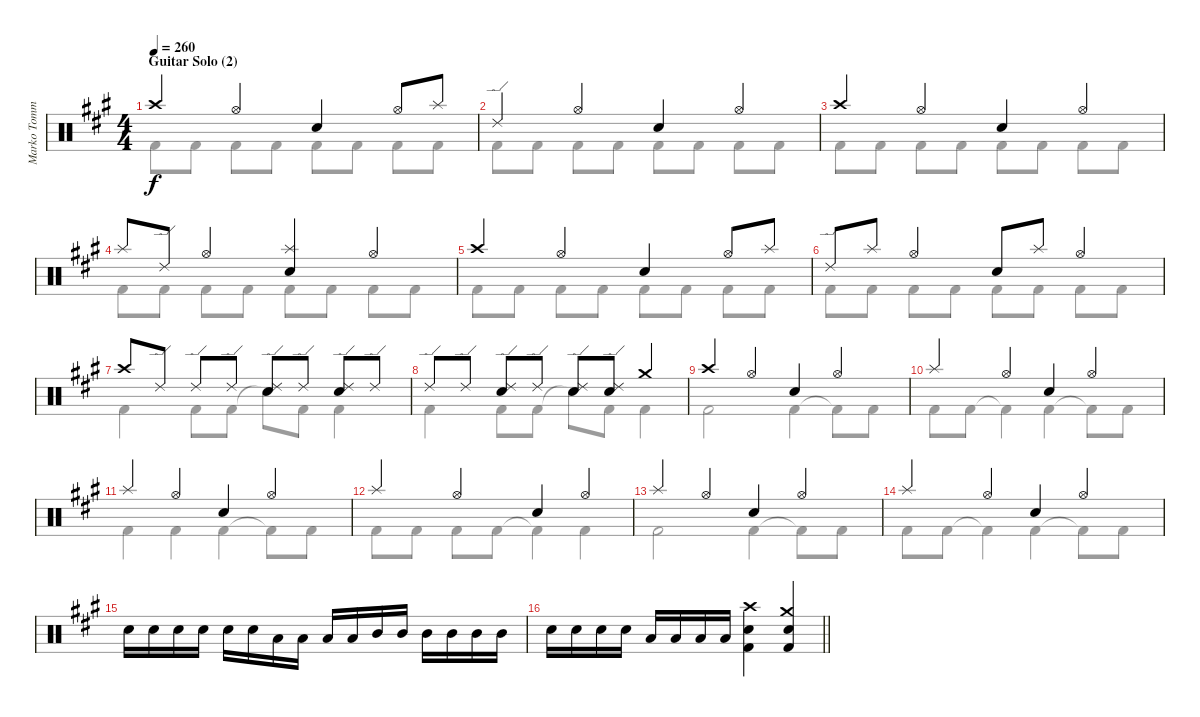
\track ("Marko Tommila (drums)" "Marko Tomm") {instrument percussion}
\staff {score}
\articulation defaults
\voice
\ts (4 4)
\section ("" "Guitar Solo (2)")
\tempo 260
\clef neutral
\ks f#minor "Crash high (hit)".4{dy f} "Hi-Hat (open)".4 "Electric Snare (hit)".4 "Hi-Hat (open)".8 "Splash (hit)".8
|
"Ride (edge) 2".4 "Hi-Hat (open)".4 "Electric Snare (hit)".4 "Hi-Hat (open)".4 |
"Crash high (hit)".4 "Hi-Hat (open)".4 "Electric Snare (hit)".4 "Hi-Hat (open)".4 |
"Splash (hit)".8 "Ride (edge) 2".8 "Hi-Hat (open)".4 ("Splash (hit)" "Electric Snare (hit)").4 "Hi-Hat (open)".4 |
"Crash high (hit)".4 "Hi-Hat (open)".4 "Electric Snare (hit)".4 "Hi-Hat (open)".8 "Splash (hit)".8 |
"Ride (edge) 2".8 "Splash (hit)".8 "Hi-Hat (open)".4 "Electric Snare (hit)".8 "Splash (hit)".8 "Hi-Hat (open)".4 |
"Crash high (hit)".8 "Ride (edge) 2".8 "Ride (edge) 2".8 "Ride (edge) 2".8 ("Ride (edge) 2" "Electric Snare (hit)").8 "Ride (edge) 2".8 ("Ride (edge) 2" "Electric Snare (hit)").8 "Ride (edge) 2".8 |
"Ride (edge) 2".8 "Ride (edge) 2".8 ("Ride (edge) 2" "Electric Snare (hit)").8 "Ride (edge) 2".8 ("Ride (edge) 2" "Electric Snare (hit)").8 ("Ride (edge) 2" "Electric Snare (hit)").8 "Crash medium (hit)".4 |
"Crash high (hit)".4 "Hi-Hat (open)".4 "Electric Snare (hit)".4 "Hi-Hat (open)".4 |
"Splash (hit)".4 "Hi-Hat (open)".4 "Electric Snare (hit)".4 "Hi-Hat (open)".4 |
"Splash (hit)".4 "Hi-Hat (open)".4 "Electric Snare (hit)".4 "Hi-Hat (open)".4 |
"Splash (hit)".4 "Hi-Hat (open)".4 "Electric Snare (hit)".4 "Hi-Hat (open)".4 |
"Splash (hit)".4 "Hi-Hat (open)".4 "Electric Snare (hit)".4 "Hi-Hat (open)".4 |
"Splash (hit)".4 "Hi-Hat (open)".4 "Electric Snare (hit)".4 "Hi-Hat (open)".4 |
"Electric Snare (hit)".16 "Electric Snare (hit)".16 "Electric Snare (hit)".16 "Electric Snare (hit)".16 "Electric Snare (hit)".16 "Electric Snare (hit)".16 "Low Tom (hit)".16 "Low Tom (hit)".16 "Low Tom (hit)".16 "Low Tom (hit)".16 "Mid Tom (hit)".16 "Mid Tom (hit)".16 "Mid Tom (hit)".16 "Mid Tom (hit)".16 "Mid Tom (hit)".16 "Mid Tom (hit)".16 |
\barLineRight lightlight "Electric Snare (hit)".16 "Electric Snare (hit)".16 "Electric Snare (hit)".16 "Electric Snare (hit)".16 "Low Tom (hit)".16 "Low Tom (hit)".16 "Low Tom (hit)".16 "Low Tom (hit)".16
("Crash high (hit)" "Electric Snare (hit)" "Kick (hit) 2").4 ("Crash medium (hit)" "Electric Snare (hit)" "Kick (hit) 2").4
\voice
\clef neutral
\ottava regular
\simile none
\ks f#minor "Kick (hit) 2".8{dy f} "Kick (hit) 2".8 "Kick (hit) 2".8 "Kick (hit) 2".8 "Kick (hit) 2".8 "Kick (hit) 2".8 "Kick (hit) 2".8 "Kick (hit) 2".8
|
"Kick (hit) 2".8 "Kick (hit) 2".8 "Kick (hit) 2".8 "Kick (hit) 2".8 "Kick (hit) 2".8 "Kick (hit) 2".8 "Kick (hit) 2".8 "Kick (hit) 2".8 |
"Kick (hit) 2".8 "Kick (hit) 2".8 "Kick (hit) 2".8 "Kick (hit) 2".8 "Kick (hit) 2".8 "Kick (hit) 2".8 "Kick (hit) 2".8 "Kick (hit) 2".8 |
"Kick (hit) 2".8 "Kick (hit) 2".8 "Kick (hit) 2".8 "Kick (hit) 2".8 "Kick (hit) 2".8 "Kick (hit) 2".8 "Kick (hit) 2".8 "Kick (hit) 2".8 |
"Kick (hit) 2".8 "Kick (hit) 2".8 "Kick (hit) 2".8 "Kick (hit) 2".8 "Kick (hit) 2".8 "Kick (hit) 2".8 "Kick (hit) 2".8 "Kick (hit) 2".8 |
"Kick (hit) 2".8 "Kick (hit) 2".8 "Kick (hit) 2".8 "Kick (hit) 2".8 "Kick (hit) 2".8 "Kick (hit) 2".8 "Kick (hit) 2".8 "Kick (hit) 2".8 |
"Kick (hit) 2".4 "Kick (hit) 2".8 "Kick (hit) 2".8 "Snare (hit)"{t}.8 "Kick (hit) 2".8 "Kick (hit) 2".4 |
"Kick (hit) 2".4 "Kick (hit) 2".8 "Kick (hit) 2".8 "Snare (hit)"{t}.8 "Kick (hit) 2".8 "Kick (hit) 2".4 |
"Kick (hit) 2".2 "Kick (hit) 2".4 "Kick (hit) 2"{t}.8 "Kick (hit) 2".8 |
"Kick (hit) 2".8 "Kick (hit) 2".8 "Kick (hit) 2"{t}.4 "Kick (hit) 2".4 "Kick (hit) 2"{t}.8 "Kick (hit) 2".8 |
"Kick (hit) 2".4 "Kick (hit) 2".4 "Kick (hit) 2".4 "Kick (hit) 2"{t}.8 "Kick (hit) 2".8 |
"Kick (hit) 2".8 "Kick (hit) 2".8 "Kick (hit) 2".8 "Kick (hit) 2".8 "Kick (hit) 2"{t}.4 "Kick (hit) 2".4 |
"Kick (hit) 2".2 "Kick (hit) 2".4 "Kick (hit) 2"{t}.8 "Kick (hit) 2".8 |
"Kick (hit) 2".8 "Kick (hit) 2".8 "Kick (hit) 2"{t}.4 "Kick (hit) 2".4 "Kick (hit) 2"{t}.8 "Kick (hit) 2".8 |
|
\barLineRight lightlight
